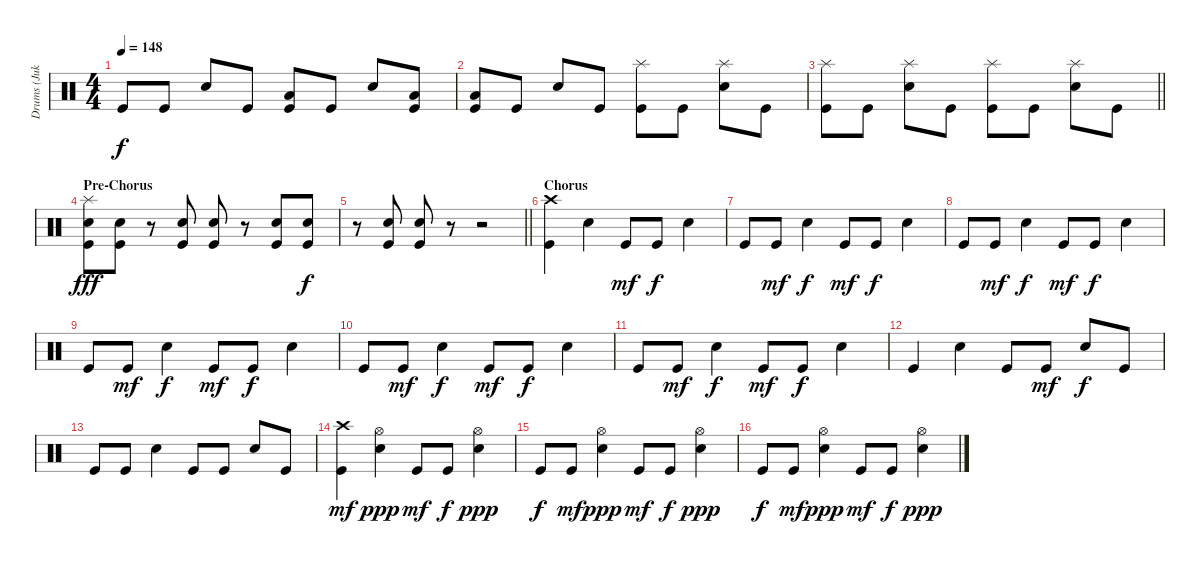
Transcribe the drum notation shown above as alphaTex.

\track ("Drums (Jukka)" "Drums (Juk") {instrument percussion}
\staff {score}
\articulation defaults
\ts (4 4)
\tempo 148
\clef neutral
\ks c "Kick (hit)".8{dy f} "Kick (hit)".8 "Snare (hit) 2".8 "Kick (hit)".8
("Kick (hit)" "Low Floor Tom (hit)").8 "Kick (hit)".8 "Snare (hit) 2".8 ("Kick (hit)" "Low Floor Tom (hit)").8 |
("Kick (hit)" "Low Floor Tom (hit)").8 "Kick (hit)".8 "Snare (hit) 2".8 "Kick (hit)".8 ("Kick (hit)" "Splash (hit)").8 "Kick (hit)".8 ("Snare (hit) 2" "Splash (hit)").8 "Kick (hit)".8 |
\barLineRight lightlight
("Kick (hit)" "Splash (hit)").8 "Kick (hit)".8 ("Snare (hit) 2" "Splash (hit)").8 "Kick (hit)".8 ("Kick (hit)" "Splash (hit)").8 "Kick (hit)".8 ("Snare (hit) 2" "Splash (hit)").8 "Kick (hit)".8 |
\section ("" "Pre-Chorus")
("Kick (hit)" "Snare (hit) 2" "Splash (hit)").8{dy fff} ("Kick (hit)" "Snare (hit) 2").8 r.8 ("Kick (hit)" "Snare (hit) 2").8 ("Kick (hit)" "Snare (hit) 2").8 r.8 ("Kick (hit)" "Snare (hit) 2").8 ("Kick (hit)" "Snare (hit) 2").8{dy f} |
\barLineRight lightlight
r.8 ("Kick (hit)" "Snare (hit) 2").8 ("Kick (hit)" "Snare (hit) 2").8 r.8 r.2 |
\section ("" "Chorus")
("Kick (hit)" "Crash high (hit)").4 "Snare (hit) 2".4 "Kick (hit)".8{dy mf} "Kick (hit)".8{dy f} "Snare (hit) 2".4 |
"Kick (hit)".8 "Kick (hit)".8{dy mf} "Snare (hit) 2".4{dy f} "Kick (hit)".8{dy mf} "Kick (hit)".8{dy f} "Snare (hit) 2".4 |
"Kick (hit)".8 "Kick (hit)".8{dy mf} "Snare (hit) 2".4{dy f} "Kick (hit)".8{dy mf} "Kick (hit)".8{dy f} "Snare (hit) 2".4 |
"Kick (hit)".8 "Kick (hit)".8{dy mf} "Snare (hit) 2".4{dy f} "Kick (hit)".8{dy mf} "Kick (hit)".8{dy f} "Snare (hit) 2".4 |
"Kick (hit)".8 "Kick (hit)".8{dy mf} "Snare (hit) 2".4{dy f} "Kick (hit)".8{dy mf} "Kick (hit)".8{dy f} "Snare (hit) 2".4 |
"Kick (hit)".8 "Kick (hit)".8{dy mf} "Snare (hit) 2".4{dy f} "Kick (hit)".8{dy mf} "Kick (hit)".8{dy f} "Snare (hit) 2".4 |
"Kick (hit)".4 "Snare (hit) 2".4 "Kick (hit)".8 "Kick (hit)".8{dy mf} "Snare (hit) 2".8{dy f} "Kick (hit)".8 |
"Kick (hit)".8 "Kick (hit)".8 "Snare (hit) 2".4 "Kick (hit)".8 "Kick (hit)".8 "Snare (hit) 2".8 "Kick (hit)".8 |
("Kick (hit)" "Crash high (hit)").4{dy mf} ("Snare (hit) 2" "Hi-Hat (open)").4{dy ppp} "Kick (hit)".8{dy mf} "Kick (hit)".8{dy f} ("Snare (hit) 2" "Hi-Hat (open)").4{dy ppp} |
"Kick (hit)".8{dy f} "Kick (hit)".8{dy mf} ("Snare (hit) 2" "Hi-Hat (open)").4{dy ppp} "Kick (hit)".8{dy mf} "Kick (hit)".8{dy f} ("Snare (hit) 2" "Hi-Hat (open)").4{dy ppp} |
"Kick (hit)".8{dy f} "Kick (hit)".8{dy mf} ("Snare (hit) 2" "Hi-Hat (open)").4{dy ppp} "Kick (hit)".8{dy mf} "Kick (hit)".8{dy f} ("Snare (hit) 2" "Hi-Hat (open)").4{dy ppp}
